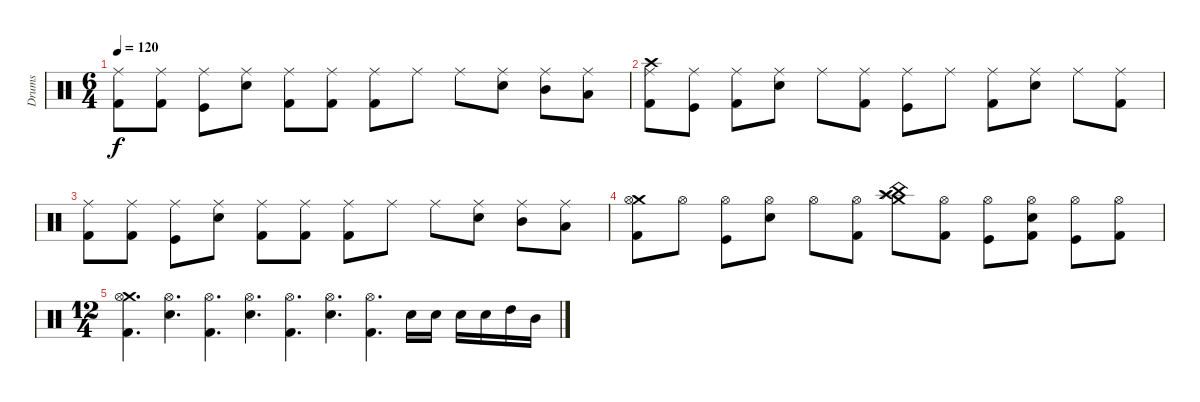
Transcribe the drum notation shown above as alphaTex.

\track ("Drums" "Drums") {instrument percussion}
\staff {score}
\articulation defaults
\ts (6 4)
\tempo 120
\clef neutral
\ks c
("Ride (middle)" "Kick (hit) 2").8{dy f} ("Ride (middle)" "Kick (hit) 2").8 ("Ride (middle)" "Kick (hit)").8 ("Ride (middle)" "Electric Snare (hit)").8 ("Ride (middle)" "Kick (hit) 2").8 ("Ride (middle)" "Kick (hit) 2").8 ("Ride (middle)" "Kick (hit) 2").8 "Ride (middle)".8 "Ride (middle)".8 ("Ride (middle)" "Electric Snare (hit)").8 ("Ride (middle)" "Mid Tom (hit)").8 ("Ride (middle)" "Low Tom (hit)").8 |
("Crash high (hit)" "Ride (middle)" "Kick (hit) 2").8 ("Ride (middle)" "Kick (hit)").8 ("Ride (middle)" "Kick (hit) 2").8 ("Ride (middle)" "Electric Snare (hit)").8 "Ride (middle)".8 ("Ride (middle)" "Kick (hit) 2").8 ("Ride (middle)" "Kick (hit)").8 "Ride (middle)".8 ("Ride (middle)" "Kick (hit) 2").8 ("Ride (middle)" "Electric Snare (hit)").8 "Ride (middle)".8 ("Ride (middle)" "Kick (hit) 2").8 |
("Ride (middle)" "Kick (hit) 2").8 ("Ride (middle)" "Kick (hit) 2").8 ("Ride (middle)" "Kick (hit)").8 ("Ride (middle)" "Electric Snare (hit)").8 ("Ride (middle)" "Kick (hit) 2").8 ("Ride (middle)" "Kick (hit) 2").8 ("Ride (middle)" "Kick (hit) 2").8 "Ride (middle)".8 "Ride (middle)".8 ("Ride (middle)" "Electric Snare (hit)").8 ("Ride (middle)" "Mid Tom (hit)").8 ("Ride (middle)" "Low Tom (hit)").8 |
("Crash medium (hit)" "Hi-Hat (open)" "Kick (hit) 2").8 "Hi-Hat (open)".8 ("Hi-Hat (open)" "Kick (hit)").8 ("Hi-Hat (open)" "Electric Snare (hit)").8 "Hi-Hat (open)".8 ("Hi-Hat (open)" "Kick (hit) 2").8 ("Splash (hit)" "China (hit)" "Crash medium (hit)" "Crash high (hit)").8 ("Hi-Hat (open)" "Kick (hit) 2").8 ("Hi-Hat (open)" "Kick (hit)").8 ("Hi-Hat (open)" "Electric Snare (hit)" "Kick (hit) 2").8 ("Hi-Hat (open)" "Kick (hit)").8 ("Hi-Hat (open)" "Kick (hit) 2").8 |
\ts (12 4)
("Crash medium (hit)" "Hi-Hat (open)" "Kick (hit) 2").4{d} ("Hi-Hat (open)" "Electric Snare (hit)").4{d} ("Hi-Hat (open)" "Kick (hit) 2").4{d} ("Hi-Hat (open)" "Electric Snare (hit)").4{d} ("Hi-Hat (open)" "Kick (hit) 2").4{d} ("Hi-Hat (open)" "Electric Snare (hit)").4{d} ("Hi-Hat (open)" "Kick (hit) 2").4{d} "Electric Snare (hit)".16 "Electric Snare (hit)".16 "Electric Snare (hit)".16 "Electric Snare (hit)".16 "High Tom (hit)".16 "Mid Tom (hit)".16
